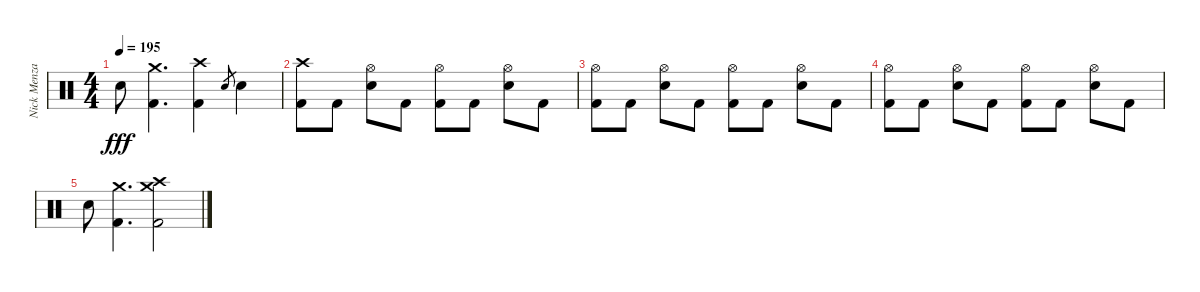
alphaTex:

\track ("Nick Menza (Drums)" "Nick Menza") {instrument percussion}
\staff {score}
\articulation defaults
\ts (4 4)
\tempo 195
\clef neutral
\ks c "Electric Snare (hit)".8{dy fff}
("Kick (hit) 2" "Crash medium (hit)").4{d} ("Kick (hit) 2" "Crash high (hit)").4 "Electric Snare (hit)".8{gr} "Electric Snare (hit)".4 |
("Kick (hit) 2" "Crash high (hit)").8 "Kick (hit) 2".8 ("Electric Snare (hit)" "Hi-Hat (open)").8 "Kick (hit) 2".8 ("Kick (hit) 2" "Hi-Hat (open)").8 "Kick (hit) 2".8 ("Electric Snare (hit)" "Hi-Hat (open)").8 "Kick (hit) 2".8 |
("Kick (hit) 2" "Hi-Hat (open)").8 "Kick (hit) 2".8 ("Electric Snare (hit)" "Hi-Hat (open)").8 "Kick (hit) 2".8 ("Kick (hit) 2" "Hi-Hat (open)").8 "Kick (hit) 2".8 ("Electric Snare (hit)" "Hi-Hat (open)").8 "Kick (hit) 2".8 |
("Kick (hit) 2" "Hi-Hat (open)").8 "Kick (hit) 2".8 ("Electric Snare (hit)" "Hi-Hat (open)").8 "Kick (hit) 2".8 ("Kick (hit) 2" "Hi-Hat (open)").8 "Kick (hit) 2".8 ("Electric Snare (hit)" "Hi-Hat (open)").8 "Kick (hit) 2".8 |
"Electric Snare (hit)".8 ("Kick (hit) 2" "Crash medium (hit)").4{d} ("Kick (hit) 2" "Crash high (hit)" "Crash medium (hit)").2
